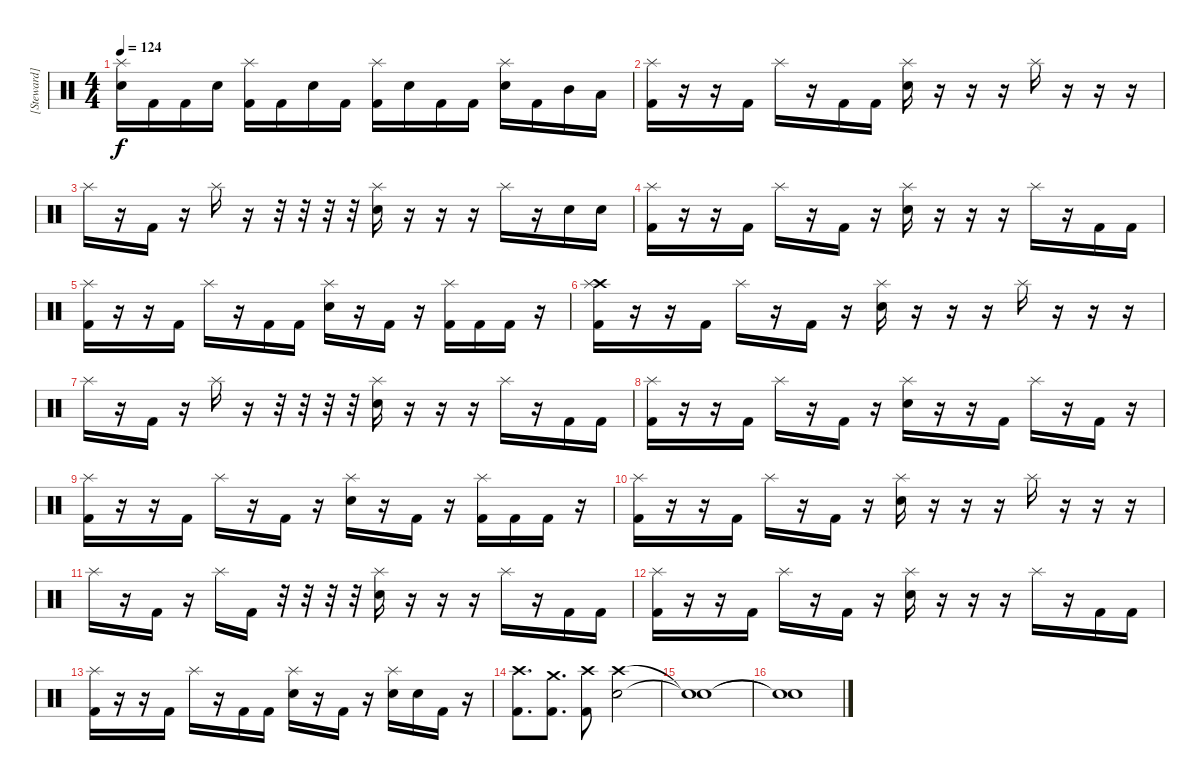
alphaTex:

\track ("[Steward]" "[Steward]") {solo instrument percussion}
\staff {score}
\articulation defaults
\ts (4 4)
\tempo 124
\clef neutral
\ks c
("Electric Snare (hit)" "Splash (hit)").16{dy f} "Kick (hit) 2".16 "Kick (hit) 2".16 "Electric Snare (hit)".16 ("Kick (hit) 2" "Splash (hit)").16 "Kick (hit) 2".16 "Electric Snare (hit)".16 "Kick (hit) 2".16 ("Kick (hit) 2" "Splash (hit)").16 "Electric Snare (hit)".16 "Kick (hit) 2".16 "Kick (hit) 2".16 ("Electric Snare (hit)" "Splash (hit)").16 "Kick (hit) 2".16 "Mid Tom (hit)".16 "Low Tom (hit)".16 |
("Kick (hit) 2" "Splash (hit)").16 r.16 r.16 "Kick (hit) 2".16 "Splash (hit)".16 r.16 "Kick (hit) 2".16 "Kick (hit) 2".16 ("Electric Snare (hit)" "Splash (hit)").16 r.16 r.16 r.16 "Splash (hit)".16 r.16 r.16 r.16 |
"Splash (hit)".16 r.16 "Kick (hit) 2".16 r.16 "Splash (hit)".16 r.16 r.32 r.32 r.32 r.32 ("Electric Snare (hit)" "Splash (hit)").16 r.16 r.16 r.16 "Splash (hit)".16 r.16 "Electric Snare (hit)".16 "Electric Snare (hit)".16 |
("Kick (hit) 2" "Splash (hit)").16 r.16 r.16 "Kick (hit) 2".16 "Splash (hit)".16 r.16 "Kick (hit) 2".16 r.16 ("Electric Snare (hit)" "Splash (hit)").16 r.16 r.16 r.16 "Splash (hit)".16 r.16 "Kick (hit) 2".16 "Kick (hit) 2".16 |
("Kick (hit) 2" "Splash (hit)").16 r.16 r.16 "Kick (hit) 2".16 "Splash (hit)".16 r.16 "Kick (hit) 2".16 "Kick (hit) 2".16 ("Electric Snare (hit)" "Splash (hit)").16 r.16 "Kick (hit) 2".16 r.16 ("Kick (hit) 2" "Splash (hit)").16 "Kick (hit) 2".16 "Kick (hit) 2".16 r.16 |
("Crash high (hit)" "Kick (hit) 2" "Splash (hit)").16 r.16 r.16 "Kick (hit) 2".16 "Splash (hit)".16 r.16 "Kick (hit) 2".16 r.16 ("Electric Snare (hit)" "Splash (hit)").16 r.16 r.16 r.16 "Splash (hit)".16 r.16 r.16 r.16 |
"Splash (hit)".16 r.16 "Kick (hit) 2".16 r.16 "Splash (hit)".16 r.16 r.32 r.32 r.32 r.32 ("Electric Snare (hit)" "Splash (hit)").16 r.16 r.16 r.16 "Splash (hit)".16 r.16 "Kick (hit) 2".16 "Kick (hit) 2".16 |
("Kick (hit) 2" "Splash (hit)").16 r.16 r.16 "Kick (hit) 2".16 "Splash (hit)".16 r.16 "Kick (hit) 2".16 r.16 ("Electric Snare (hit)" "Splash (hit)").16 r.16 r.16 "Kick (hit) 2".16 "Splash (hit)".16 r.16 "Kick (hit) 2".16 r.16 |
("Kick (hit) 2" "Splash (hit)").16 r.16 r.16 "Kick (hit) 2".16 "Splash (hit)".16 r.16 "Kick (hit) 2".16 r.16 ("Electric Snare (hit)" "Splash (hit)").16 r.16 "Kick (hit) 2".16 r.16 ("Kick (hit) 2" "Splash (hit)").16 "Kick (hit) 2".16 "Kick (hit) 2".16 r.16 |
("Kick (hit) 2" "Splash (hit)").16 r.16 r.16 "Kick (hit) 2".16 "Splash (hit)".16 r.16 "Kick (hit) 2".16 r.16 ("Electric Snare (hit)" "Splash (hit)").16 r.16 r.16 r.16 "Splash (hit)".16 r.16 r.16 r.16 |
"Splash (hit)".16 r.16 "Kick (hit) 2".16 r.16 "Splash (hit)".16 "Kick (hit) 2".16 r.32 r.32 r.32 r.32 ("Electric Snare (hit)" "Splash (hit)").16 r.16 r.16 r.16 "Splash (hit)".16 r.16 "Kick (hit) 2".16 "Kick (hit) 2".16 |
("Kick (hit) 2" "Splash (hit)").16 r.16 r.16 "Kick (hit) 2".16 "Splash (hit)".16 r.16 "Kick (hit) 2".16 r.16 ("Electric Snare (hit)" "Splash (hit)").16 r.16 r.16 r.16 "Splash (hit)".16 r.16 "Kick (hit) 2".16 "Kick (hit) 2".16 |
("Kick (hit) 2" "Splash (hit)").16 r.16 r.16 "Kick (hit) 2".16 "Splash (hit)".16 r.16 "Kick (hit) 2".16 "Kick (hit) 2".16 ("Electric Snare (hit)" "Splash (hit)").16 r.16 "Kick (hit) 2".16 r.16 ("Electric Snare (hit)" "Splash (hit)").16 "Electric Snare (hit)".16 "Kick (hit) 2".16 r.16 |
("Crash high (hit)" "Kick (hit) 2").8{d} ("Crash medium (hit)" "Kick (hit) 2").8{d} ("Crash high (hit)" "Kick (hit) 2").8 ("Crash high (hit)" "Electric Snare (hit)").2 |
("Snare (hit)"{t} "Snare (hit)"{t}).1 |
("Snare (hit)"{t} "Snare (hit)"{t}).1
